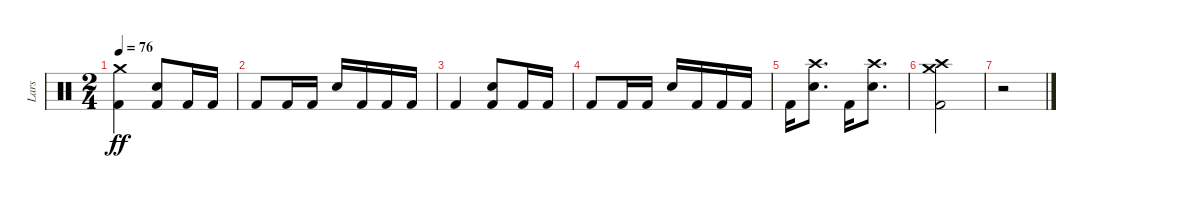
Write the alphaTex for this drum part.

\track ("Lars" "Lars") {instrument percussion}
\staff {score}
\articulation defaults
\ts (2 4)
\tempo 76
\clef neutral
\ks c
("Crash medium (hit)" "Kick (hit) 2").4{dy ff} ("Snare (hit) 2" "Kick (hit) 2").8 "Kick (hit) 2".16 "Kick (hit) 2".16 |
"Kick (hit) 2".8 "Kick (hit) 2".16 "Kick (hit) 2".16 "Snare (hit) 2".16 "Kick (hit) 2".16 "Kick (hit) 2".16 "Kick (hit) 2".16 |
"Kick (hit) 2".4 ("Snare (hit) 2" "Kick (hit) 2").8 "Kick (hit) 2".16 "Kick (hit) 2".16 |
"Kick (hit) 2".8 "Kick (hit) 2".16 "Kick (hit) 2".16 "Snare (hit) 2".16 "Kick (hit) 2".16 "Kick (hit) 2".16 "Kick (hit) 2".16 |
"Kick (hit) 2".16 ("Crash high (hit)" "Snare (hit) 2").8{d} "Kick (hit) 2".16 ("Crash high (hit)" "Snare (hit) 2").8{d} |
("Crash medium (hit)" "Crash high (hit)" "Kick (hit) 2").2 |
r.2
